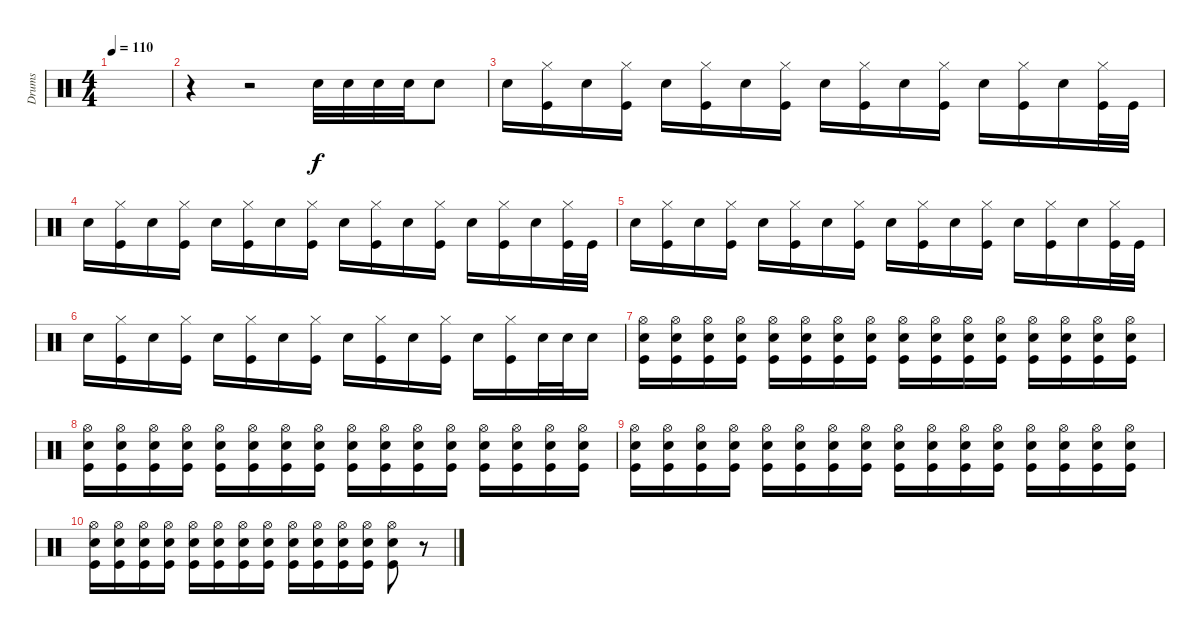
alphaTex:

\track ("Drums" "Drums") {instrument percussion}
\staff {score}
\articulation defaults
\ts (4 4)
\tempo 110
\clef neutral
\ks c
|
r.4 r.2 "Snare (hit) 2".32 "Snare (hit) 2".32 "Snare (hit) 2".32 "Snare (hit) 2".32 "Snare (hit) 2".8 |
"Snare (hit) 2".16 ("Hi-Hat (closed)" "Kick (hit)").16 "Snare (hit) 2".16 ("Hi-Hat (closed)" "Kick (hit)").16 "Snare (hit) 2".16 ("Hi-Hat (closed)" "Kick (hit)").16 "Snare (hit) 2".16 ("Hi-Hat (closed)" "Kick (hit)").16 "Snare (hit) 2".16 ("Hi-Hat (closed)" "Kick (hit)").16 "Snare (hit) 2".16 ("Hi-Hat (closed)" "Kick (hit)").16 "Snare (hit) 2".16 ("Hi-Hat (closed)" "Kick (hit)").16 "Snare (hit) 2".16 ("Hi-Hat (closed)" "Kick (hit)").32 "Kick (hit)".32 |
"Snare (hit) 2".16 ("Hi-Hat (closed)" "Kick (hit)").16 "Snare (hit) 2".16 ("Hi-Hat (closed)" "Kick (hit)").16 "Snare (hit) 2".16 ("Hi-Hat (closed)" "Kick (hit)").16 "Snare (hit) 2".16 ("Hi-Hat (closed)" "Kick (hit)").16 "Snare (hit) 2".16 ("Hi-Hat (closed)" "Kick (hit)").16 "Snare (hit) 2".16 ("Hi-Hat (closed)" "Kick (hit)").16 "Snare (hit) 2".16 ("Hi-Hat (closed)" "Kick (hit)").16 "Snare (hit) 2".16 ("Hi-Hat (closed)" "Kick (hit)").32 "Kick (hit)".32 |
"Snare (hit) 2".16 ("Hi-Hat (closed)" "Kick (hit)").16 "Snare (hit) 2".16 ("Hi-Hat (closed)" "Kick (hit)").16 "Snare (hit) 2".16 ("Hi-Hat (closed)" "Kick (hit)").16 "Snare (hit) 2".16 ("Hi-Hat (closed)" "Kick (hit)").16 "Snare (hit) 2".16 ("Hi-Hat (closed)" "Kick (hit)").16 "Snare (hit) 2".16 ("Hi-Hat (closed)" "Kick (hit)").16 "Snare (hit) 2".16 ("Hi-Hat (closed)" "Kick (hit)").16 "Snare (hit) 2".16 ("Hi-Hat (closed)" "Kick (hit)").32 "Kick (hit)".32 |
"Snare (hit) 2".16 ("Hi-Hat (closed)" "Kick (hit)").16 "Snare (hit) 2".16 ("Hi-Hat (closed)" "Kick (hit)").16 "Snare (hit) 2".16 ("Hi-Hat (closed)" "Kick (hit)").16 "Snare (hit) 2".16 ("Hi-Hat (closed)" "Kick (hit)").16 "Snare (hit) 2".16 ("Hi-Hat (closed)" "Kick (hit)").16 "Snare (hit) 2".16 ("Hi-Hat (closed)" "Kick (hit)").16 "Snare (hit) 2".16 ("Hi-Hat (closed)" "Kick (hit)").16 "Snare (hit) 2".32 "Snare (hit) 2".32 "Snare (hit) 2".16 |
("Hi-Hat (open)" "Snare (hit) 2" "Kick (hit)").16 ("Hi-Hat (open)" "Snare (hit) 2" "Kick (hit)").16 ("Hi-Hat (open)" "Snare (hit) 2" "Kick (hit)").16 ("Hi-Hat (open)" "Snare (hit) 2" "Kick (hit)").16 ("Hi-Hat (open)" "Snare (hit) 2" "Kick (hit)").16 ("Hi-Hat (open)" "Snare (hit) 2" "Kick (hit)").16 ("Hi-Hat (open)" "Snare (hit) 2" "Kick (hit)").16 ("Hi-Hat (open)" "Snare (hit) 2" "Kick (hit)").16 ("Hi-Hat (open)" "Snare (hit) 2" "Kick (hit)").16 ("Hi-Hat (open)" "Snare (hit) 2" "Kick (hit)").16 ("Hi-Hat (open)" "Snare (hit) 2" "Kick (hit)").16 ("Hi-Hat (open)" "Snare (hit) 2" "Kick (hit)").16 ("Hi-Hat (open)" "Snare (hit) 2" "Kick (hit)").16 ("Hi-Hat (open)" "Snare (hit) 2" "Kick (hit)").16 ("Hi-Hat (open)" "Snare (hit) 2" "Kick (hit)").16 ("Hi-Hat (open)" "Snare (hit) 2" "Kick (hit)").16 |
("Hi-Hat (open)" "Snare (hit) 2" "Kick (hit)").16 ("Hi-Hat (open)" "Snare (hit) 2" "Kick (hit)").16 ("Hi-Hat (open)" "Snare (hit) 2" "Kick (hit)").16 ("Hi-Hat (open)" "Snare (hit) 2" "Kick (hit)").16 ("Hi-Hat (open)" "Snare (hit) 2" "Kick (hit)").16 ("Hi-Hat (open)" "Snare (hit) 2" "Kick (hit)").16 ("Hi-Hat (open)" "Snare (hit) 2" "Kick (hit)").16 ("Hi-Hat (open)" "Snare (hit) 2" "Kick (hit)").16 ("Hi-Hat (open)" "Snare (hit) 2" "Kick (hit)").16 ("Hi-Hat (open)" "Snare (hit) 2" "Kick (hit)").16 ("Hi-Hat (open)" "Snare (hit) 2" "Kick (hit)").16 ("Hi-Hat (open)" "Snare (hit) 2" "Kick (hit)").16 ("Hi-Hat (open)" "Snare (hit) 2" "Kick (hit)").16 ("Hi-Hat (open)" "Snare (hit) 2" "Kick (hit)").16 ("Hi-Hat (open)" "Snare (hit) 2" "Kick (hit)").16 ("Hi-Hat (open)" "Snare (hit) 2" "Kick (hit)").16 |
("Hi-Hat (open)" "Snare (hit) 2" "Kick (hit)").16 ("Hi-Hat (open)" "Snare (hit) 2" "Kick (hit)").16 ("Hi-Hat (open)" "Snare (hit) 2" "Kick (hit)").16 ("Hi-Hat (open)" "Snare (hit) 2" "Kick (hit)").16 ("Hi-Hat (open)" "Snare (hit) 2" "Kick (hit)").16 ("Hi-Hat (open)" "Snare (hit) 2" "Kick (hit)").16 ("Hi-Hat (open)" "Snare (hit) 2" "Kick (hit)").16 ("Hi-Hat (open)" "Snare (hit) 2" "Kick (hit)").16 ("Hi-Hat (open)" "Snare (hit) 2" "Kick (hit)").16 ("Hi-Hat (open)" "Snare (hit) 2" "Kick (hit)").16 ("Hi-Hat (open)" "Snare (hit) 2" "Kick (hit)").16 ("Hi-Hat (open)" "Snare (hit) 2" "Kick (hit)").16 ("Hi-Hat (open)" "Snare (hit) 2" "Kick (hit)").16 ("Hi-Hat (open)" "Snare (hit) 2" "Kick (hit)").16 ("Hi-Hat (open)" "Snare (hit) 2" "Kick (hit)").16 ("Hi-Hat (open)" "Snare (hit) 2" "Kick (hit)").16 |
("Hi-Hat (open)" "Snare (hit) 2" "Kick (hit)").16 ("Hi-Hat (open)" "Snare (hit) 2" "Kick (hit)").16 ("Hi-Hat (open)" "Snare (hit) 2" "Kick (hit)").16 ("Hi-Hat (open)" "Snare (hit) 2" "Kick (hit)").16 ("Hi-Hat (open)" "Snare (hit) 2" "Kick (hit)").16 ("Hi-Hat (open)" "Snare (hit) 2" "Kick (hit)").16 ("Hi-Hat (open)" "Snare (hit) 2" "Kick (hit)").16 ("Hi-Hat (open)" "Snare (hit) 2" "Kick (hit)").16 ("Hi-Hat (open)" "Snare (hit) 2" "Kick (hit)").16 ("Hi-Hat (open)" "Snare (hit) 2" "Kick (hit)").16 ("Hi-Hat (open)" "Snare (hit) 2" "Kick (hit)").16 ("Hi-Hat (open)" "Snare (hit) 2" "Kick (hit)").16 ("Hi-Hat (open)" "Snare (hit) 2" "Kick (hit)").8 r.8
